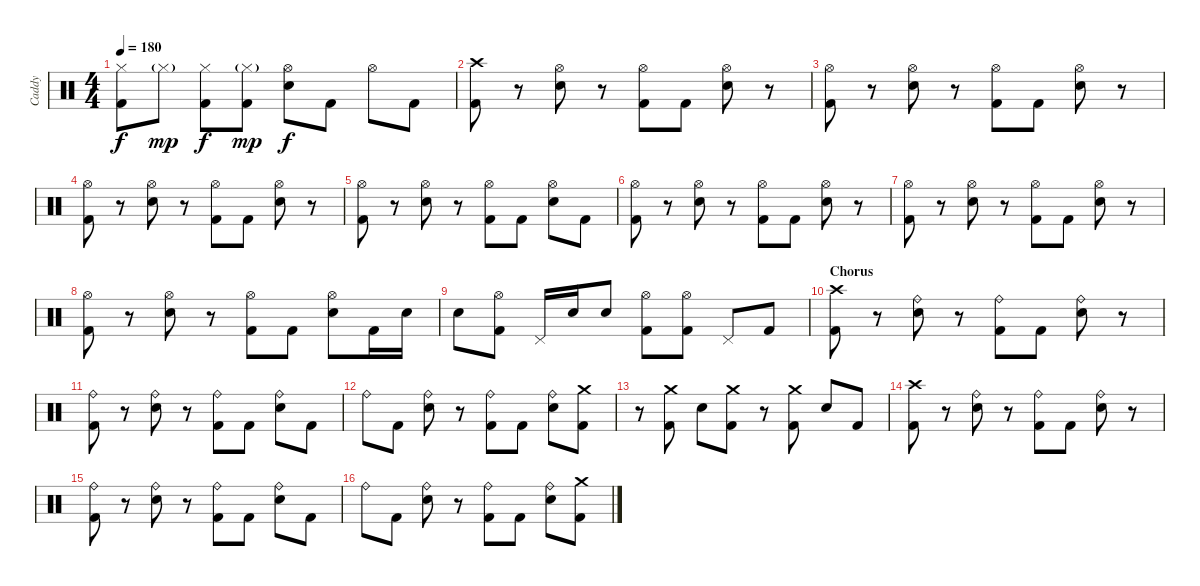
\track ("Caddy" "Caddy") {instrument percussion}
\staff {score}
\articulation defaults
\ts (4 4)
\tempo 180
\clef neutral
\ks c
("Hi-Hat (closed)" "Kick (hit) 2").8{dy f} "Hi-Hat (closed)"{g}.8{dy mp} ("Hi-Hat (closed)" "Kick (hit) 2").8{dy f} ("Hi-Hat (closed)"{g} "Kick (hit) 2").8{dy mp} ("Hi-Hat (open)" "Electric Snare (hit)").8{dy f} "Kick (hit) 2".8 "Hi-Hat (open)".8 "Kick (hit) 2".8 |
("Crash high (hit)" "Kick (hit) 2").8 r.8 ("Hi-Hat (open)" "Electric Snare (hit)").8 r.8 ("Hi-Hat (open)" "Kick (hit) 2").8 "Kick (hit) 2".8 ("Hi-Hat (open)" "Electric Snare (hit)").8 r.8 |
("Hi-Hat (open)" "Kick (hit) 2").8 r.8 ("Hi-Hat (open)" "Electric Snare (hit)").8 r.8 ("Hi-Hat (open)" "Kick (hit) 2").8 "Kick (hit) 2".8 ("Hi-Hat (open)" "Electric Snare (hit)").8 r.8 |
("Hi-Hat (open)" "Kick (hit) 2").8 r.8 ("Hi-Hat (open)" "Electric Snare (hit)").8 r.8 ("Hi-Hat (open)" "Kick (hit) 2").8 "Kick (hit) 2".8 ("Hi-Hat (open)" "Electric Snare (hit)").8 r.8 |
("Hi-Hat (open)" "Kick (hit) 2").8 r.8 ("Hi-Hat (open)" "Electric Snare (hit)").8 r.8 ("Hi-Hat (open)" "Kick (hit) 2").8 "Kick (hit) 2".8 ("Hi-Hat (open)" "Electric Snare (hit)").8 "Kick (hit) 2".8 |
("Hi-Hat (open)" "Kick (hit) 2").8 r.8 ("Hi-Hat (open)" "Electric Snare (hit)").8 r.8 ("Hi-Hat (open)" "Kick (hit) 2").8 "Kick (hit) 2".8 ("Hi-Hat (open)" "Electric Snare (hit)").8 r.8 |
("Hi-Hat (open)" "Kick (hit) 2").8 r.8 ("Hi-Hat (open)" "Electric Snare (hit)").8 r.8 ("Hi-Hat (open)" "Kick (hit) 2").8 "Kick (hit) 2".8 ("Hi-Hat (open)" "Electric Snare (hit)").8 r.8 |
("Hi-Hat (open)" "Kick (hit) 2").8 r.8 ("Hi-Hat (open)" "Electric Snare (hit)").8 r.8 ("Hi-Hat (open)" "Kick (hit) 2").8 "Kick (hit) 2".8 ("Hi-Hat (open)" "Electric Snare (hit)").8 "Kick (hit) 2".16 "Electric Snare (hit)".16 |
"Electric Snare (hit)".8 ("Hi-Hat (open)" "Kick (hit) 2").8 "Pedal Hi-Hat (hit)".16 "Electric Snare (hit)".16 "Electric Snare (hit)".8 ("Hi-Hat (open)" "Kick (hit) 2").8 ("Hi-Hat (open)" "Kick (hit) 2").8 "Pedal Hi-Hat (hit)".8 "Kick (hit) 2".8 |
\section ("" "Chorus")
("Crash high (hit)" "Kick (hit) 2").8 r.8 ("Ride (bell)" "Electric Snare (hit)").8 r.8 ("Ride (bell)" "Kick (hit) 2").8 "Kick (hit) 2".8 ("Ride (bell)" "Electric Snare (hit)").8 r.8 |
("Ride (bell)" "Kick (hit) 2").8 r.8 ("Ride (bell)" "Electric Snare (hit)").8 r.8 ("Ride (bell)" "Kick (hit) 2").8 "Kick (hit) 2".8 ("Ride (bell)" "Electric Snare (hit)").8 "Kick (hit) 2".8 |
"Ride (bell)".8 "Kick (hit) 2".8 ("Ride (bell)" "Electric Snare (hit)").8 r.8 ("Ride (bell)" "Kick (hit) 2").8 "Kick (hit) 2".8 ("Ride (bell)" "Electric Snare (hit)").8 ("Crash medium (hit)" "Kick (hit) 2").8 |
r.8 ("Crash medium (hit)" "Kick (hit) 2").8 "Electric Snare (hit)".8 ("Crash medium (hit)" "Kick (hit) 2").8 r.8 ("Crash medium (hit)" "Kick (hit) 2").8 "Electric Snare (hit)".8 "Kick (hit) 2".8 |
("Crash high (hit)" "Kick (hit) 2").8 r.8 ("Ride (bell)" "Electric Snare (hit)").8 r.8 ("Ride (bell)" "Kick (hit) 2").8 "Kick (hit) 2".8 ("Ride (bell)" "Electric Snare (hit)").8 r.8 |
("Ride (bell)" "Kick (hit) 2").8 r.8 ("Ride (bell)" "Electric Snare (hit)").8 r.8 ("Ride (bell)" "Kick (hit) 2").8 "Kick (hit) 2".8 ("Ride (bell)" "Electric Snare (hit)").8 "Kick (hit) 2".8 |
"Ride (bell)".8 "Kick (hit) 2".8 ("Ride (bell)" "Electric Snare (hit)").8 r.8 ("Ride (bell)" "Kick (hit) 2").8 "Kick (hit) 2".8 ("Ride (bell)" "Electric Snare (hit)").8 ("Crash medium (hit)" "Kick (hit) 2").8
